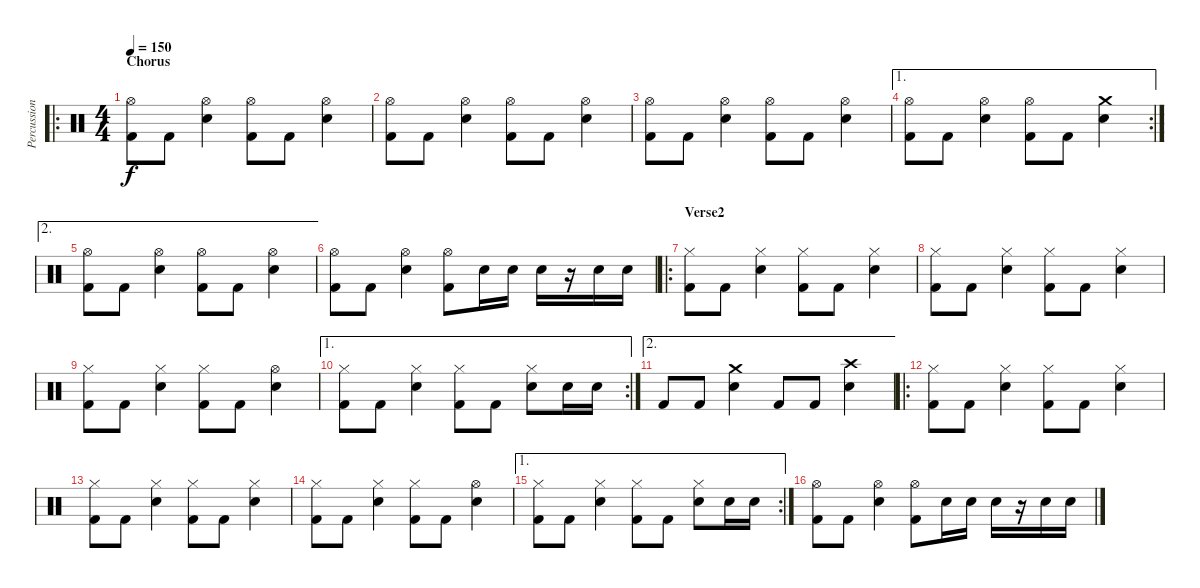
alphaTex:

\track ("Percussion" "Percussion") {instrument percussion}
\staff {score}
\articulation defaults
\ro
\ts (4 4)
\section ("" "Chorus")
\tempo 150
\clef neutral
\ks c
("Hi-Hat (open)" "Kick (hit) 2").8{dy f} "Kick (hit) 2".8 ("Hi-Hat (open)" "Electric Snare (hit)").4 ("Hi-Hat (open)" "Kick (hit) 2").8 "Kick (hit) 2".8 ("Hi-Hat (open)" "Electric Snare (hit)").4 |
("Hi-Hat (open)" "Kick (hit) 2").8 "Kick (hit) 2".8 ("Hi-Hat (open)" "Electric Snare (hit)").4 ("Hi-Hat (open)" "Kick (hit) 2").8 "Kick (hit) 2".8 ("Hi-Hat (open)" "Electric Snare (hit)").4 |
("Hi-Hat (open)" "Kick (hit) 2").8 "Kick (hit) 2".8 ("Hi-Hat (open)" "Electric Snare (hit)").4 ("Hi-Hat (open)" "Kick (hit) 2").8 "Kick (hit) 2".8 ("Hi-Hat (open)" "Electric Snare (hit)").4 |
\ae 1
\rc 2
("Hi-Hat (open)" "Kick (hit) 2").8 "Kick (hit) 2".8 ("Hi-Hat (open)" "Electric Snare (hit)").4 ("Hi-Hat (open)" "Kick (hit) 2").8 "Kick (hit) 2".8 ("Crash medium (hit)" "Electric Snare (hit)").4 |
\ae 2
("Hi-Hat (open)" "Kick (hit) 2").8 "Kick (hit) 2".8 ("Hi-Hat (open)" "Electric Snare (hit)").4 ("Hi-Hat (open)" "Kick (hit) 2").8 "Kick (hit) 2".8 ("Hi-Hat (open)" "Electric Snare (hit)").4 |
("Hi-Hat (open)" "Kick (hit) 2").8 "Kick (hit) 2".8 ("Hi-Hat (open)" "Electric Snare (hit)").4 ("Hi-Hat (open)" "Kick (hit) 2").8 "Electric Snare (hit)".16 "Electric Snare (hit)".16 "Electric Snare (hit)".16 r.16 "Electric Snare (hit)".16 "Electric Snare (hit)".16 |
\ro
\section ("" "Verse2")
("Hi-Hat (closed)" "Kick (hit) 2").8 "Kick (hit) 2".8 ("Hi-Hat (closed)" "Electric Snare (hit)").4 ("Hi-Hat (closed)" "Kick (hit) 2").8 "Kick (hit) 2".8 ("Hi-Hat (closed)" "Electric Snare (hit)").4 |
("Hi-Hat (closed)" "Kick (hit) 2").8 "Kick (hit) 2".8 ("Hi-Hat (closed)" "Electric Snare (hit)").4 ("Hi-Hat (closed)" "Kick (hit) 2").8 "Kick (hit) 2".8 ("Hi-Hat (closed)" "Electric Snare (hit)").4 |
("Hi-Hat (closed)" "Kick (hit) 2").8 "Kick (hit) 2".8 ("Hi-Hat (closed)" "Electric Snare (hit)").4 ("Hi-Hat (closed)" "Kick (hit) 2").8 "Kick (hit) 2".8 ("Hi-Hat (open)" "Electric Snare (hit)").4 |
\ae 1
\rc 2
("Hi-Hat (closed)" "Kick (hit) 2").8 "Kick (hit) 2".8 ("Hi-Hat (closed)" "Electric Snare (hit)").4 ("Hi-Hat (closed)" "Kick (hit) 2").8 "Kick (hit) 2".8 ("Hi-Hat (closed)" "Electric Snare (hit)").8 "Electric Snare (hit)".16 "Electric Snare (hit)".16 |
\ae 2 "Kick (hit) 2".8 "Kick (hit) 2".8
("Crash medium (hit)" "Electric Snare (hit)").4 "Kick (hit) 2".8 "Kick (hit) 2".8 ("Crash high (hit)" "Electric Snare (hit)").4 |
\ro
("Hi-Hat (closed)" "Kick (hit) 2").8 "Kick (hit) 2".8 ("Hi-Hat (closed)" "Electric Snare (hit)").4 ("Hi-Hat (closed)" "Kick (hit) 2").8 "Kick (hit) 2".8 ("Hi-Hat (closed)" "Electric Snare (hit)").4 |
("Hi-Hat (closed)" "Kick (hit) 2").8 "Kick (hit) 2".8 ("Hi-Hat (closed)" "Electric Snare (hit)").4 ("Hi-Hat (closed)" "Kick (hit) 2").8 "Kick (hit) 2".8 ("Hi-Hat (closed)" "Electric Snare (hit)").4 |
("Hi-Hat (closed)" "Kick (hit) 2").8 "Kick (hit) 2".8 ("Hi-Hat (closed)" "Electric Snare (hit)").4 ("Hi-Hat (closed)" "Kick (hit) 2").8 "Kick (hit) 2".8 ("Hi-Hat (open)" "Electric Snare (hit)").4 |
\ae 1
\rc 2
("Hi-Hat (closed)" "Kick (hit) 2").8 "Kick (hit) 2".8 ("Hi-Hat (closed)" "Electric Snare (hit)").4 ("Hi-Hat (closed)" "Kick (hit) 2").8 "Kick (hit) 2".8 ("Hi-Hat (closed)" "Electric Snare (hit)").8 "Electric Snare (hit)".16 "Electric Snare (hit)".16 |
("Hi-Hat (open)" "Kick (hit) 2").8 "Kick (hit) 2".8 ("Hi-Hat (open)" "Electric Snare (hit)").4 ("Hi-Hat (open)" "Kick (hit) 2").8 "Electric Snare (hit)".16 "Electric Snare (hit)".16 "Electric Snare (hit)".16 r.16 "Electric Snare (hit)".16 "Electric Snare (hit)".16
